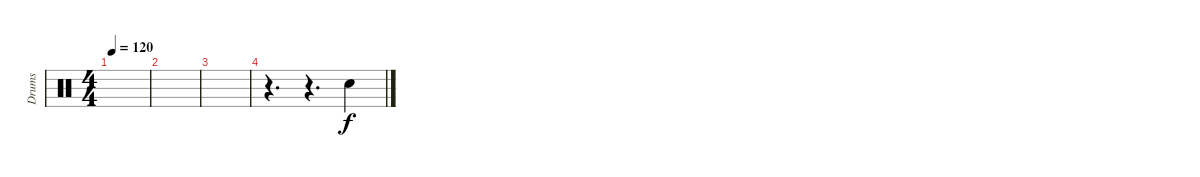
\track ("Drums" "Drums") {instrument percussion}
\staff {score}
\articulation defaults
\ts (4 4)
\tempo 120
\clef neutral
\ks c
|
|
|
r.4{d} r.4{d} "Snare (hit) 2".4{dy f}
